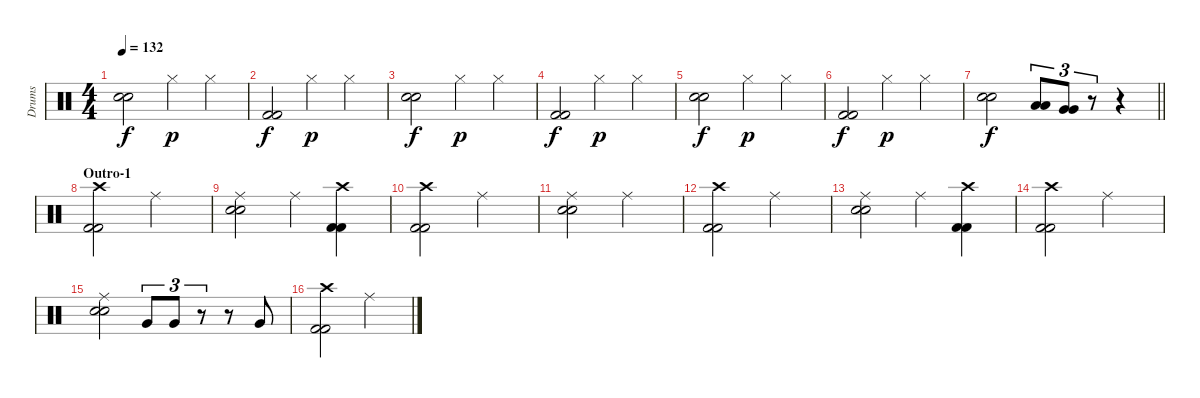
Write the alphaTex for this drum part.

\track ("Drums" "Drums") {instrument percussion}
\staff {score}
\articulation defaults
\ts (4 4)
\tempo 132
\clef neutral
\ks c
("Snare (hit) 2" "Snare (hit) 2").2{dy f} "Hi-Hat (closed)".4{dy p} "Hi-Hat (closed)".4 |
("Kick (hit) 2" "Kick (hit) 2").2{dy f} "Hi-Hat (closed)".4{dy p} "Hi-Hat (closed)".4 |
("Snare (hit) 2" "Snare (hit) 2").2{dy f} "Hi-Hat (closed)".4{dy p} "Hi-Hat (closed)".4 |
("Kick (hit) 2" "Kick (hit) 2").2{dy f} "Hi-Hat (closed)".4{dy p} "Hi-Hat (closed)".4 |
("Snare (hit) 2" "Snare (hit) 2").2{dy f} "Hi-Hat (closed)".4{dy p} "Hi-Hat (closed)".4 |
("Kick (hit) 2" "Kick (hit) 2").2{dy f} "Hi-Hat (closed)".4{dy p} "Hi-Hat (closed)".4 |
\barLineRight lightlight
("Snare (hit) 2" "Snare (hit) 2").2{dy f} ("Low Tom (hit)" "Low Tom (hit)").8{tu (3 2)} ("Very Low Tom (hit)" "Very Low Tom (hit)").8{tu (3 2)} r.8{tu (3 2)} r.4 |
\section ("" "Outro-1")
("Crash high (hit)" "Kick (hit) 2" "Kick (hit) 2").2 "Ride (middle)".2 |
("Ride (middle)" "Snare (hit) 2" "Snare (hit) 2").2 "Ride (middle)".4 ("Crash high (hit)" "Kick (hit) 2" "Kick (hit) 2").4 |
("Crash high (hit)" "Kick (hit) 2" "Kick (hit) 2").2 "Ride (middle)".2 |
("Ride (middle)" "Snare (hit) 2" "Snare (hit) 2").2 "Ride (middle)".2 |
("Crash high (hit)" "Kick (hit) 2" "Kick (hit) 2").2 "Ride (middle)".2 |
("Ride (middle)" "Snare (hit) 2" "Snare (hit) 2").2 "Ride (middle)".4 ("Crash high (hit)" "Kick (hit) 2" "Kick (hit) 2").4 |
("Crash high (hit)" "Kick (hit) 2" "Kick (hit) 2").2 "Ride (middle)".2 |
("Ride (middle)" "Snare (hit) 2" "Snare (hit) 2").2 "Very Low Tom (hit)".8{tu (3 2)} "Very Low Tom (hit)".8{tu (3 2)} r.8{tu (3 2)} r.8 "Very Low Tom (hit)".8 |
("Crash high (hit)" "Kick (hit) 2" "Kick (hit) 2").2 "Ride (middle)".2
